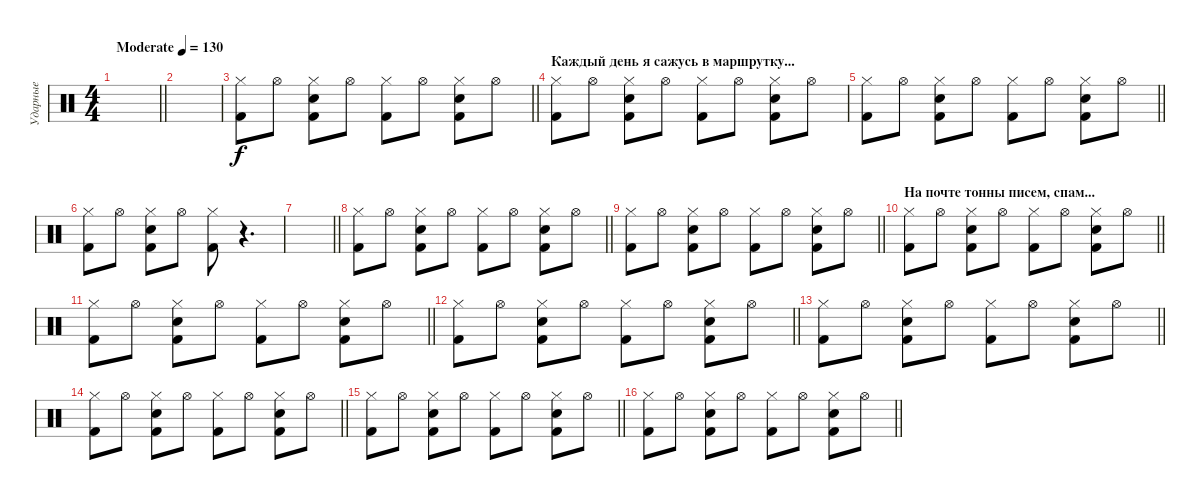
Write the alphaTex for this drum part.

\track ("Ударные" "Ударные") {instrument percussion}
\staff {score}
\articulation defaults
\ts (4 4)
\tempo (130 "Moderate")
\clef neutral
\barLineRight lightlight
\ks c
|
|
\barLineRight lightlight
("Kick (hit) 2" "Hi-Hat (closed)").8 "Hi-Hat (open)".8 ("Kick (hit) 2" "Hi-Hat (closed)" "Electric Snare (hit)").8 "Hi-Hat (open)".8 ("Kick (hit) 2" "Hi-Hat (closed)").8 "Hi-Hat (open)".8 ("Kick (hit) 2" "Hi-Hat (closed)" "Electric Snare (hit)").8 "Hi-Hat (open)".8 |
\section ("" "Каждый день я сажусь в маршрутку...")
("Kick (hit) 2" "Hi-Hat (closed)").8 "Hi-Hat (open)".8 ("Kick (hit) 2" "Hi-Hat (closed)" "Electric Snare (hit)").8 "Hi-Hat (open)".8 ("Kick (hit) 2" "Hi-Hat (closed)").8 "Hi-Hat (open)".8 ("Kick (hit) 2" "Hi-Hat (closed)" "Electric Snare (hit)").8 "Hi-Hat (open)".8 |
\barLineRight lightlight
("Kick (hit) 2" "Hi-Hat (closed)").8 "Hi-Hat (open)".8 ("Kick (hit) 2" "Hi-Hat (closed)" "Electric Snare (hit)").8 "Hi-Hat (open)".8 ("Kick (hit) 2" "Hi-Hat (closed)").8 "Hi-Hat (open)".8 ("Kick (hit) 2" "Hi-Hat (closed)" "Electric Snare (hit)").8 "Hi-Hat (open)".8 |
("Kick (hit) 2" "Hi-Hat (closed)").8 "Hi-Hat (open)".8 ("Kick (hit) 2" "Hi-Hat (closed)" "Electric Snare (hit)").8 "Hi-Hat (open)".8 ("Kick (hit) 2" "Hi-Hat (closed)").8 r.4{d} |
\barLineRight lightlight
|
\barLineRight lightlight
("Kick (hit) 2" "Hi-Hat (closed)").8 "Hi-Hat (open)".8 ("Kick (hit) 2" "Hi-Hat (closed)" "Electric Snare (hit)").8 "Hi-Hat (open)".8 ("Kick (hit) 2" "Hi-Hat (closed)").8 "Hi-Hat (open)".8 ("Kick (hit) 2" "Hi-Hat (closed)" "Electric Snare (hit)").8 "Hi-Hat (open)".8 |
\barLineRight lightlight
("Kick (hit) 2" "Hi-Hat (closed)").8 "Hi-Hat (open)".8 ("Kick (hit) 2" "Hi-Hat (closed)" "Electric Snare (hit)").8 "Hi-Hat (open)".8 ("Kick (hit) 2" "Hi-Hat (closed)").8 "Hi-Hat (open)".8 ("Kick (hit) 2" "Hi-Hat (closed)" "Electric Snare (hit)").8 "Hi-Hat (open)".8 |
\section ("" "На почте тонны писем, спам...")
\barLineRight lightlight
("Kick (hit) 2" "Hi-Hat (closed)").8 "Hi-Hat (open)".8 ("Kick (hit) 2" "Hi-Hat (closed)" "Electric Snare (hit)").8 "Hi-Hat (open)".8 ("Kick (hit) 2" "Hi-Hat (closed)").8 "Hi-Hat (open)".8 ("Kick (hit) 2" "Hi-Hat (closed)" "Electric Snare (hit)").8 "Hi-Hat (open)".8 |
\barLineRight lightlight
("Kick (hit) 2" "Hi-Hat (closed)").8 "Hi-Hat (open)".8 ("Kick (hit) 2" "Hi-Hat (closed)" "Electric Snare (hit)").8 "Hi-Hat (open)".8 ("Kick (hit) 2" "Hi-Hat (closed)").8 "Hi-Hat (open)".8 ("Kick (hit) 2" "Hi-Hat (closed)" "Electric Snare (hit)").8 "Hi-Hat (open)".8 |
\barLineRight lightlight
("Kick (hit) 2" "Hi-Hat (closed)").8 "Hi-Hat (open)".8 ("Kick (hit) 2" "Hi-Hat (closed)" "Electric Snare (hit)").8 "Hi-Hat (open)".8 ("Kick (hit) 2" "Hi-Hat (closed)").8 "Hi-Hat (open)".8 ("Kick (hit) 2" "Hi-Hat (closed)" "Electric Snare (hit)").8 "Hi-Hat (open)".8 |
\barLineRight lightlight
("Kick (hit) 2" "Hi-Hat (closed)").8 "Hi-Hat (open)".8 ("Kick (hit) 2" "Hi-Hat (closed)" "Electric Snare (hit)").8 "Hi-Hat (open)".8 ("Kick (hit) 2" "Hi-Hat (closed)").8 "Hi-Hat (open)".8 ("Kick (hit) 2" "Hi-Hat (closed)" "Electric Snare (hit)").8 "Hi-Hat (open)".8 |
\barLineRight lightlight
("Kick (hit) 2" "Hi-Hat (closed)").8 "Hi-Hat (open)".8 ("Kick (hit) 2" "Hi-Hat (closed)" "Electric Snare (hit)").8 "Hi-Hat (open)".8 ("Kick (hit) 2" "Hi-Hat (closed)").8 "Hi-Hat (open)".8 ("Kick (hit) 2" "Hi-Hat (closed)" "Electric Snare (hit)").8 "Hi-Hat (open)".8 |
\barLineRight lightlight
("Kick (hit) 2" "Hi-Hat (closed)").8 "Hi-Hat (open)".8 ("Kick (hit) 2" "Hi-Hat (closed)" "Electric Snare (hit)").8 "Hi-Hat (open)".8 ("Kick (hit) 2" "Hi-Hat (closed)").8 "Hi-Hat (open)".8 ("Kick (hit) 2" "Hi-Hat (closed)" "Electric Snare (hit)").8 "Hi-Hat (open)".8 |
\barLineRight lightlight
("Kick (hit) 2" "Hi-Hat (closed)").8 "Hi-Hat (open)".8 ("Kick (hit) 2" "Hi-Hat (closed)" "Electric Snare (hit)").8 "Hi-Hat (open)".8 ("Kick (hit) 2" "Hi-Hat (closed)").8 "Hi-Hat (open)".8 ("Kick (hit) 2" "Hi-Hat (closed)" "Electric Snare (hit)").8 "Hi-Hat (open)".8
